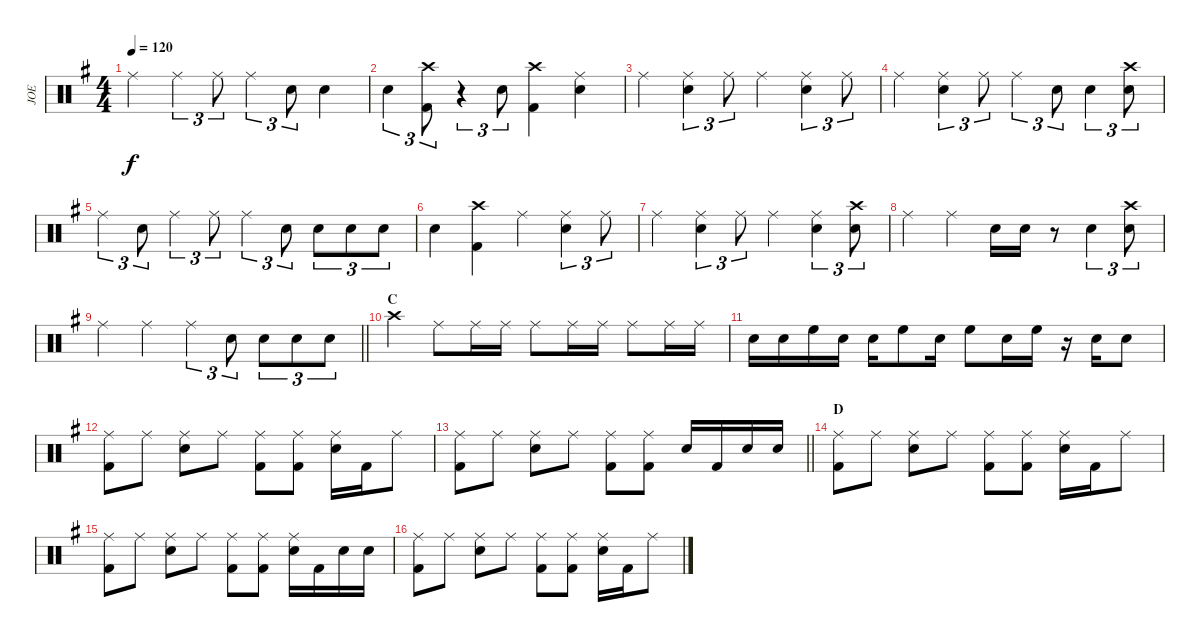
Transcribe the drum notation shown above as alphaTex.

\track ("JOE" "JOE") {instrument percussion}
\staff {score}
\articulation defaults
\ts (4 4)
\tempo 120
\clef neutral
\ks eminor "Ride (middle)".4{dy f} "Ride (middle)".4{tu (3 2)} "Ride (middle)".8{tu (3 2)} "Ride (middle)".4{tu (3 2)} "Snare (hit) 2".8{tu (3 2)} "Snare (hit) 2".4
|
"Snare (hit) 2".4{tu (3 2)} ("Crash high (hit)" "Kick (hit) 2").8{tu (3 2)} r.4{tu (3 2)} "Snare (hit) 2".8{tu (3 2)} ("Crash high (hit)" "Kick (hit) 2").4 ("Ride (middle)" "Snare (hit) 2").4 |
"Ride (middle)".4 ("Ride (middle)" "Snare (hit) 2").4{tu (3 2)} "Ride (middle)".8{tu (3 2)} "Ride (middle)".4 ("Ride (middle)" "Snare (hit) 2").4{tu (3 2)} "Ride (middle)".8{tu (3 2)} |
"Ride (middle)".4 ("Ride (middle)" "Snare (hit) 2").4{tu (3 2)} "Ride (middle)".8{tu (3 2)} "Ride (middle)".4{tu (3 2)} "Snare (hit) 2".8{tu (3 2)} "Snare (hit) 2".4{tu (3 2)} ("Crash high (hit)" "Snare (hit) 2").8{tu (3 2)} |
"Ride (middle)".4{tu (3 2)} "Snare (hit) 2".8{tu (3 2)} "Ride (middle)".4{tu (3 2)} "Ride (middle)".8{tu (3 2)} "Ride (middle)".4{tu (3 2)} "Snare (hit) 2".8{tu (3 2)} "Snare (hit) 2".8{tu (3 2)} "Snare (hit) 2".8{tu (3 2)} "Snare (hit) 2".8{tu (3 2)} |
"Snare (hit) 2".4 ("Crash high (hit)" "Kick (hit) 2").4 "Ride (middle)".4 ("Ride (middle)" "Snare (hit) 2").4{tu (3 2)} "Ride (middle)".8{tu (3 2)} |
"Ride (middle)".4 ("Ride (middle)" "Snare (hit) 2").4{tu (3 2)} "Ride (middle)".8{tu (3 2)} "Ride (middle)".4 ("Ride (middle)" "Snare (hit) 2").4{tu (3 2)} ("Crash high (hit)" "Snare (hit) 2").8{tu (3 2)} |
"Ride (middle)".4 "Ride (middle)".4 "Snare (hit) 2".16 "Snare (hit) 2".16 r.8 "Snare (hit) 2".4{tu (3 2)} ("Crash high (hit)" "Snare (hit) 2").8{tu (3 2)} |
\barLineRight lightlight "Ride (middle)".4 "Ride (middle)".4 "Ride (middle)".4{tu (3 2)} "Snare (hit) 2".8{tu (3 2)} "Snare (hit) 2".8{tu (3 2)} "Snare (hit) 2".8{tu (3 2)} "Snare (hit) 2".8{tu (3 2)}
|
\section ("" "C")
"Crash high (hit)".4 "Ride (middle)".8 "Ride (middle)".16 "Ride (middle)".16 "Ride (middle)".8 "Ride (middle)".16 "Ride (middle)".16 "Ride (middle)".8 "Ride (middle)".16 "Ride (middle)".16 |
"Snare (hit) 2".16 "Snare (hit) 2".16 "High Floor Tom (hit)".16 "Snare (hit) 2".16 "Snare (hit) 2".16 "High Floor Tom (hit)".8 "Snare (hit) 2".16 "High Floor Tom (hit)".8 "Snare (hit) 2".16 "High Floor Tom (hit)".16 r.16 "Snare (hit) 2".16 "Snare (hit) 2".8 |
("Ride (middle)" "Kick (hit) 2").8 "Ride (middle)".8 ("Ride (middle)" "Snare (hit) 2").8 "Ride (middle)".8 ("Ride (middle)" "Kick (hit) 2").8 ("Ride (middle)" "Kick (hit) 2").8 ("Ride (middle)" "Snare (hit) 2").16 "Kick (hit) 2".16 "Ride (middle)".8 |
\barLineRight lightlight
("Ride (middle)" "Kick (hit) 2").8 "Ride (middle)".8 ("Ride (middle)" "Snare (hit) 2").8 "Ride (middle)".8 ("Ride (middle)" "Kick (hit) 2").8 ("Ride (middle)" "Kick (hit) 2").8 "Snare (hit) 2".16 "Kick (hit) 2".16 "Snare (hit) 2".16 "Snare (hit) 2".16 |
\section ("" "D")
("Ride (middle)" "Kick (hit) 2").8 "Ride (middle)".8 ("Ride (middle)" "Snare (hit) 2").8 "Ride (middle)".8 ("Ride (middle)" "Kick (hit) 2").8 ("Ride (middle)" "Kick (hit) 2").8 ("Ride (middle)" "Snare (hit) 2").16 "Kick (hit) 2".16 "Ride (middle)".8 |
("Ride (middle)" "Kick (hit) 2").8 "Ride (middle)".8 ("Ride (middle)" "Snare (hit) 2").8 "Ride (middle)".8 ("Ride (middle)" "Kick (hit) 2").8 ("Ride (middle)" "Kick (hit) 2").8 ("Ride (middle)" "Snare (hit) 2").16 "Kick (hit) 2".16 "Snare (hit) 2".16 "Snare (hit) 2".16 |
("Ride (middle)" "Kick (hit) 2").8 "Ride (middle)".8 ("Ride (middle)" "Snare (hit) 2").8 "Ride (middle)".8 ("Ride (middle)" "Kick (hit) 2").8 ("Ride (middle)" "Kick (hit) 2").8 ("Ride (middle)" "Snare (hit) 2").16 "Kick (hit) 2".16 "Ride (middle)".8
